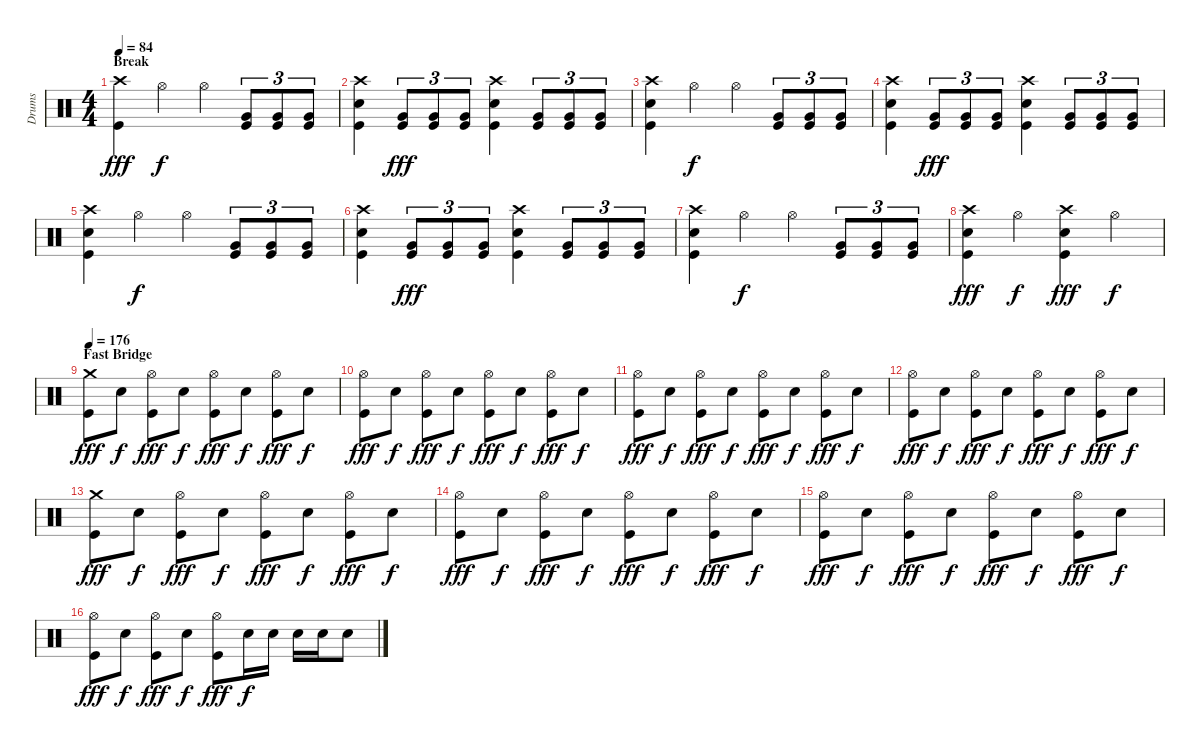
\track ("Drums" "Drums") {instrument percussion}
\staff {score}
\articulation defaults
\ts (4 4)
\section ("" "Break")
\tempo 84
\clef neutral
\ks c
("Crash high (hit)" "Kick (hit)").4{dy fff} "Hi-Hat (open)".4{dy f} "Hi-Hat (open)".4 ("Very Low Tom (hit)" "Kick (hit)").8{tu (3 2)} ("Very Low Tom (hit)" "Kick (hit)").8{tu (3 2)} ("Very Low Tom (hit)" "Kick (hit)").8{tu (3 2)} |
("Crash high (hit)" "Snare (hit) 2" "Kick (hit)").4 ("Very Low Tom (hit)" "Kick (hit)").8{tu (3 2) dy fff} ("Very Low Tom (hit)" "Kick (hit)").8{tu (3 2)} ("Very Low Tom (hit)" "Kick (hit)").8{tu (3 2)} ("Crash high (hit)" "Snare (hit) 2" "Kick (hit)").4 ("Very Low Tom (hit)" "Kick (hit)").8{tu (3 2)} ("Very Low Tom (hit)" "Kick (hit)").8{tu (3 2)} ("Very Low Tom (hit)" "Kick (hit)").8{tu (3 2)} |
("Crash high (hit)" "Snare (hit) 2" "Kick (hit)").4 "Hi-Hat (open)".4{dy f} "Hi-Hat (open)".4 ("Very Low Tom (hit)" "Kick (hit)").8{tu (3 2)} ("Very Low Tom (hit)" "Kick (hit)").8{tu (3 2)} ("Very Low Tom (hit)" "Kick (hit)").8{tu (3 2)} |
("Crash high (hit)" "Snare (hit) 2" "Kick (hit)").4 ("Very Low Tom (hit)" "Kick (hit)").8{tu (3 2) dy fff} ("Very Low Tom (hit)" "Kick (hit)").8{tu (3 2)} ("Very Low Tom (hit)" "Kick (hit)").8{tu (3 2)} ("Crash high (hit)" "Snare (hit) 2" "Kick (hit)").4 ("Very Low Tom (hit)" "Kick (hit)").8{tu (3 2)} ("Very Low Tom (hit)" "Kick (hit)").8{tu (3 2)} ("Very Low Tom (hit)" "Kick (hit)").8{tu (3 2)} |
("Crash high (hit)" "Snare (hit) 2" "Kick (hit)").4 "Hi-Hat (open)".4{dy f} "Hi-Hat (open)".4 ("Very Low Tom (hit)" "Kick (hit)").8{tu (3 2)} ("Very Low Tom (hit)" "Kick (hit)").8{tu (3 2)} ("Very Low Tom (hit)" "Kick (hit)").8{tu (3 2)} |
("Crash high (hit)" "Snare (hit) 2" "Kick (hit)").4 ("Very Low Tom (hit)" "Kick (hit)").8{tu (3 2) dy fff} ("Very Low Tom (hit)" "Kick (hit)").8{tu (3 2)} ("Very Low Tom (hit)" "Kick (hit)").8{tu (3 2)} ("Crash high (hit)" "Snare (hit) 2" "Kick (hit)").4 ("Very Low Tom (hit)" "Kick (hit)").8{tu (3 2)} ("Very Low Tom (hit)" "Kick (hit)").8{tu (3 2)} ("Very Low Tom (hit)" "Kick (hit)").8{tu (3 2)} |
("Crash high (hit)" "Snare (hit) 2" "Kick (hit)").4 "Hi-Hat (open)".4{dy f} "Hi-Hat (open)".4 ("Very Low Tom (hit)" "Kick (hit)").8{tu (3 2)} ("Very Low Tom (hit)" "Kick (hit)").8{tu (3 2)} ("Very Low Tom (hit)" "Kick (hit)").8{tu (3 2)} |
("Crash high (hit)" "Snare (hit) 2" "Kick (hit)").4{dy fff} "Hi-Hat (open)".4{dy f} ("Crash high (hit)" "Snare (hit) 2" "Kick (hit)").4{dy fff} "Hi-Hat (open)".4{dy f} |
\section ("" "Fast Bridge")
\tempo 176
("Crash medium (hit)" "Kick (hit)").8{dy fff} "Snare (hit) 2".8{dy f} ("Hi-Hat (open)" "Kick (hit)").8{dy fff} "Snare (hit) 2".8{dy f} ("Hi-Hat (open)" "Kick (hit)").8{dy fff} "Snare (hit) 2".8{dy f} ("Hi-Hat (open)" "Kick (hit)").8{dy fff} "Snare (hit) 2".8{dy f} |
("Hi-Hat (open)" "Kick (hit)").8{dy fff} "Snare (hit) 2".8{dy f} ("Hi-Hat (open)" "Kick (hit)").8{dy fff} "Snare (hit) 2".8{dy f} ("Hi-Hat (open)" "Kick (hit)").8{dy fff} "Snare (hit) 2".8{dy f} ("Hi-Hat (open)" "Kick (hit)").8{dy fff} "Snare (hit) 2".8{dy f} |
("Hi-Hat (open)" "Kick (hit)").8{dy fff} "Snare (hit) 2".8{dy f} ("Hi-Hat (open)" "Kick (hit)").8{dy fff} "Snare (hit) 2".8{dy f} ("Hi-Hat (open)" "Kick (hit)").8{dy fff} "Snare (hit) 2".8{dy f} ("Hi-Hat (open)" "Kick (hit)").8{dy fff} "Snare (hit) 2".8{dy f} |
("Hi-Hat (open)" "Kick (hit)").8{dy fff} "Snare (hit) 2".8{dy f} ("Hi-Hat (open)" "Kick (hit)").8{dy fff} "Snare (hit) 2".8{dy f} ("Hi-Hat (open)" "Kick (hit)").8{dy fff} "Snare (hit) 2".8{dy f} ("Hi-Hat (open)" "Kick (hit)").8{dy fff} "Snare (hit) 2".8{dy f} |
("Crash medium (hit)" "Kick (hit)").8{dy fff} "Snare (hit) 2".8{dy f} ("Hi-Hat (open)" "Kick (hit)").8{dy fff} "Snare (hit) 2".8{dy f} ("Hi-Hat (open)" "Kick (hit)").8{dy fff} "Snare (hit) 2".8{dy f} ("Hi-Hat (open)" "Kick (hit)").8{dy fff} "Snare (hit) 2".8{dy f} |
("Hi-Hat (open)" "Kick (hit)").8{dy fff} "Snare (hit) 2".8{dy f} ("Hi-Hat (open)" "Kick (hit)").8{dy fff} "Snare (hit) 2".8{dy f} ("Hi-Hat (open)" "Kick (hit)").8{dy fff} "Snare (hit) 2".8{dy f} ("Hi-Hat (open)" "Kick (hit)").8{dy fff} "Snare (hit) 2".8{dy f} |
("Hi-Hat (open)" "Kick (hit)").8{dy fff} "Snare (hit) 2".8{dy f} ("Hi-Hat (open)" "Kick (hit)").8{dy fff} "Snare (hit) 2".8{dy f} ("Hi-Hat (open)" "Kick (hit)").8{dy fff} "Snare (hit) 2".8{dy f} ("Hi-Hat (open)" "Kick (hit)").8{dy fff} "Snare (hit) 2".8{dy f} |
("Hi-Hat (open)" "Kick (hit)").8{dy fff} "Snare (hit) 2".8{dy f} ("Hi-Hat (open)" "Kick (hit)").8{dy fff} "Snare (hit) 2".8{dy f} ("Hi-Hat (open)" "Kick (hit)").8{dy fff} "Snare (hit) 2".16{dy f} "Snare (hit) 2".16 "Snare (hit) 2".16 "Snare (hit) 2".16 "Snare (hit) 2".8
